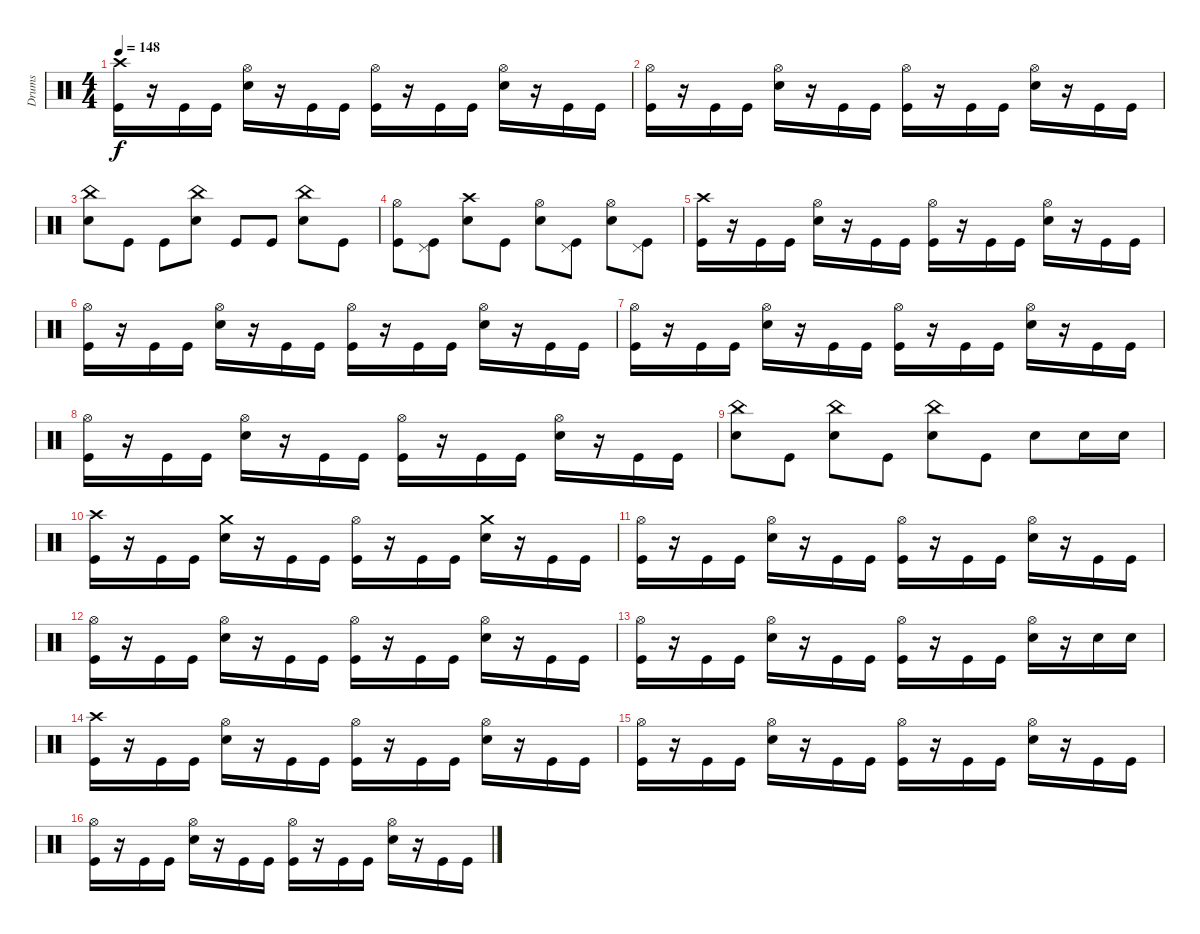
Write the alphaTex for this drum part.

\track ("Drums" "Drums") {instrument percussion}
\staff {score}
\articulation defaults
\ts (4 4)
\tempo 148
\clef neutral
\ks c
("Crash high (hit)" "Kick (hit)").16{dy f} r.16 "Kick (hit)".16 "Kick (hit)".16 ("Hi-Hat (open)" "Electric Snare (hit)").16 r.16 "Kick (hit)".16 "Kick (hit)".16 ("Hi-Hat (open)" "Kick (hit)").16 r.16 "Kick (hit)".16 "Kick (hit)".16 ("Hi-Hat (open)" "Electric Snare (hit)").16 r.16 "Kick (hit)".16 "Kick (hit)".16 |
("Hi-Hat (open)" "Kick (hit)").16 r.16 "Kick (hit)".16 "Kick (hit)".16 ("Hi-Hat (open)" "Electric Snare (hit)").16 r.16 "Kick (hit)".16 "Kick (hit)".16 ("Hi-Hat (open)" "Kick (hit)").16 r.16 "Kick (hit)".16 "Kick (hit)".16 ("Hi-Hat (open)" "Electric Snare (hit)").16 r.16 "Kick (hit)".16 "Kick (hit)".16 |
("China (hit)" "Electric Snare (hit)").8 "Kick (hit)".8 "Kick (hit)".8 ("China (hit)" "Electric Snare (hit)").8 "Kick (hit)".8 "Kick (hit)".8 ("China (hit)" "Electric Snare (hit)").8 "Kick (hit)".8 |
("Hi-Hat (open)" "Kick (hit)").8 ("Pedal Hi-Hat (hit)" "Kick (hit)").8 ("Crash high (hit)" "Electric Snare (hit)").8 "Kick (hit)".8 ("Hi-Hat (open)" "Electric Snare (hit)").8 ("Pedal Hi-Hat (hit)" "Kick (hit)").8 ("Hi-Hat (open)" "Electric Snare (hit)").8 ("Pedal Hi-Hat (hit)" "Kick (hit)").8 |
("Crash high (hit)" "Kick (hit)").16 r.16 "Kick (hit)".16 "Kick (hit)".16 ("Hi-Hat (open)" "Electric Snare (hit)").16 r.16 "Kick (hit)".16 "Kick (hit)".16 ("Hi-Hat (open)" "Kick (hit)").16 r.16 "Kick (hit)".16 "Kick (hit)".16 ("Hi-Hat (open)" "Electric Snare (hit)").16 r.16 "Kick (hit)".16 "Kick (hit)".16 |
("Hi-Hat (open)" "Kick (hit)").16 r.16 "Kick (hit)".16 "Kick (hit)".16 ("Hi-Hat (open)" "Electric Snare (hit)").16 r.16 "Kick (hit)".16 "Kick (hit)".16 ("Hi-Hat (open)" "Kick (hit)").16 r.16 "Kick (hit)".16 "Kick (hit)".16 ("Hi-Hat (open)" "Electric Snare (hit)").16 r.16 "Kick (hit)".16 "Kick (hit)".16 |
("Hi-Hat (open)" "Kick (hit)").16 r.16 "Kick (hit)".16 "Kick (hit)".16 ("Hi-Hat (open)" "Electric Snare (hit)").16 r.16 "Kick (hit)".16 "Kick (hit)".16 ("Hi-Hat (open)" "Kick (hit)").16 r.16 "Kick (hit)".16 "Kick (hit)".16 ("Hi-Hat (open)" "Electric Snare (hit)").16 r.16 "Kick (hit)".16 "Kick (hit)".16 |
("Hi-Hat (open)" "Kick (hit)").16 r.16 "Kick (hit)".16 "Kick (hit)".16 ("Hi-Hat (open)" "Electric Snare (hit)").16 r.16 "Kick (hit)".16 "Kick (hit)".16 ("Hi-Hat (open)" "Kick (hit)").16 r.16 "Kick (hit)".16 "Kick (hit)".16 ("Hi-Hat (open)" "Electric Snare (hit)").16 r.16 "Kick (hit)".16 "Kick (hit)".16 |
("China (hit)" "Electric Snare (hit)").8 "Kick (hit)".8 ("China (hit)" "Electric Snare (hit)").8 "Kick (hit)".8 ("China (hit)" "Electric Snare (hit)").8 "Kick (hit)".8 "Electric Snare (hit)".8 "Electric Snare (hit)".16 "Electric Snare (hit)".16 |
("Crash high (hit)" "Kick (hit)").16 r.16 "Kick (hit)".16 "Kick (hit)".16 ("Crash medium (hit)" "Electric Snare (hit)").16 r.16 "Kick (hit)".16 "Kick (hit)".16 ("Hi-Hat (open)" "Kick (hit)").16 r.16 "Kick (hit)".16 "Kick (hit)".16 ("Crash medium (hit)" "Electric Snare (hit)").16 r.16 "Kick (hit)".16 "Kick (hit)".16 |
("Hi-Hat (open)" "Kick (hit)").16 r.16 "Kick (hit)".16 "Kick (hit)".16 ("Hi-Hat (open)" "Electric Snare (hit)").16 r.16 "Kick (hit)".16 "Kick (hit)".16 ("Hi-Hat (open)" "Kick (hit)").16 r.16 "Kick (hit)".16 "Kick (hit)".16 ("Hi-Hat (open)" "Electric Snare (hit)").16 r.16 "Kick (hit)".16 "Kick (hit)".16 |
("Hi-Hat (open)" "Kick (hit)").16 r.16 "Kick (hit)".16 "Kick (hit)".16 ("Hi-Hat (open)" "Electric Snare (hit)").16 r.16 "Kick (hit)".16 "Kick (hit)".16 ("Hi-Hat (open)" "Kick (hit)").16 r.16 "Kick (hit)".16 "Kick (hit)".16 ("Hi-Hat (open)" "Electric Snare (hit)").16 r.16 "Kick (hit)".16 "Kick (hit)".16 |
("Hi-Hat (open)" "Kick (hit)").16 r.16 "Kick (hit)".16 "Kick (hit)".16 ("Hi-Hat (open)" "Electric Snare (hit)").16 r.16 "Kick (hit)".16 "Kick (hit)".16 ("Hi-Hat (open)" "Kick (hit)").16 r.16 "Kick (hit)".16 "Kick (hit)".16 ("Hi-Hat (open)" "Electric Snare (hit)").16 r.16 "Electric Snare (hit)".16 "Electric Snare (hit)".16 |
("Crash high (hit)" "Kick (hit)").16 r.16 "Kick (hit)".16 "Kick (hit)".16 ("Hi-Hat (open)" "Electric Snare (hit)").16 r.16 "Kick (hit)".16 "Kick (hit)".16 ("Hi-Hat (open)" "Kick (hit)").16 r.16 "Kick (hit)".16 "Kick (hit)".16 ("Hi-Hat (open)" "Electric Snare (hit)").16 r.16 "Kick (hit)".16 "Kick (hit)".16 |
("Hi-Hat (open)" "Kick (hit)").16 r.16 "Kick (hit)".16 "Kick (hit)".16 ("Hi-Hat (open)" "Electric Snare (hit)").16 r.16 "Kick (hit)".16 "Kick (hit)".16 ("Hi-Hat (open)" "Kick (hit)").16 r.16 "Kick (hit)".16 "Kick (hit)".16 ("Hi-Hat (open)" "Electric Snare (hit)").16 r.16 "Kick (hit)".16 "Kick (hit)".16 |
("Hi-Hat (open)" "Kick (hit)").16 r.16 "Kick (hit)".16 "Kick (hit)".16 ("Hi-Hat (open)" "Electric Snare (hit)").16 r.16 "Kick (hit)".16 "Kick (hit)".16 ("Hi-Hat (open)" "Kick (hit)").16 r.16 "Kick (hit)".16 "Kick (hit)".16 ("Hi-Hat (open)" "Electric Snare (hit)").16 r.16 "Kick (hit)".16 "Kick (hit)".16
